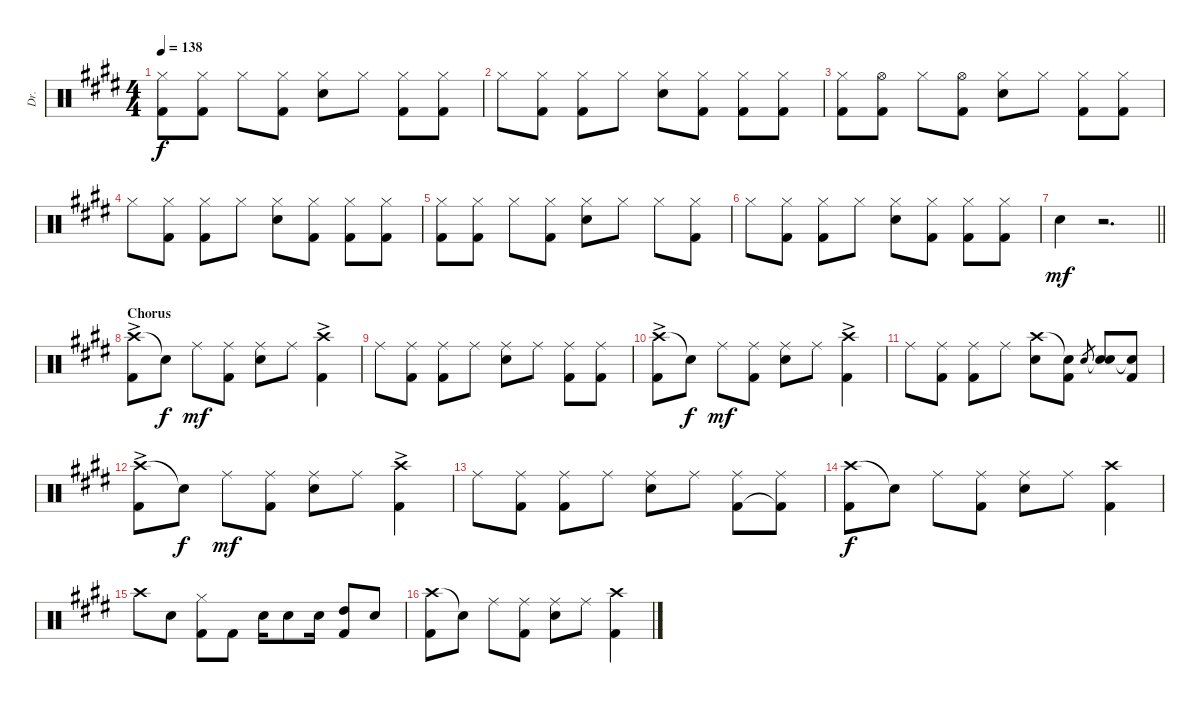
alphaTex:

\track ("Dr." "Dr.") {instrument percussion}
\staff {score}
\articulation defaults
\ts (4 4)
\tempo 138
\clef neutral
\ks e
("Hi-Hat (closed)" "Kick (hit) 2").8{dy f} ("Hi-Hat (closed)" "Kick (hit) 2").8 "Hi-Hat (closed)".8 ("Hi-Hat (closed)" "Kick (hit) 2").8 ("Hi-Hat (closed)" "Snare (hit) 2").8 "Hi-Hat (closed)".8 ("Hi-Hat (closed)" "Kick (hit) 2").8 ("Hi-Hat (closed)" "Kick (hit) 2").8 |
"Hi-Hat (closed)".8 ("Hi-Hat (closed)" "Kick (hit) 2").8 ("Hi-Hat (closed)" "Kick (hit) 2").8 "Hi-Hat (closed)".8 ("Hi-Hat (closed)" "Snare (hit) 2").8 ("Hi-Hat (closed)" "Kick (hit) 2").8 ("Hi-Hat (closed)" "Kick (hit) 2").8 ("Hi-Hat (closed)" "Kick (hit) 2").8 |
("Hi-Hat (closed)" "Kick (hit) 2").8 ("Hi-Hat (open)" "Kick (hit) 2").8 "Hi-Hat (closed)".8 ("Hi-Hat (open)" "Kick (hit) 2").8 ("Hi-Hat (closed)" "Snare (hit) 2").8 "Hi-Hat (closed)".8 ("Hi-Hat (closed)" "Kick (hit) 2").8 ("Hi-Hat (closed)" "Kick (hit) 2").8 |
"Hi-Hat (closed)".8 ("Hi-Hat (closed)" "Kick (hit) 2").8 ("Hi-Hat (closed)" "Kick (hit) 2").8 "Hi-Hat (closed)".8 ("Hi-Hat (closed)" "Snare (hit) 2").8 ("Hi-Hat (closed)" "Kick (hit) 2").8 ("Hi-Hat (closed)" "Kick (hit) 2").8 ("Hi-Hat (closed)" "Kick (hit) 2").8 |
("Hi-Hat (closed)" "Kick (hit) 2").8 ("Hi-Hat (closed)" "Kick (hit) 2").8 "Hi-Hat (closed)".8 ("Hi-Hat (closed)" "Kick (hit) 2").8 ("Hi-Hat (closed)" "Snare (hit) 2").8 "Hi-Hat (closed)".8 "Hi-Hat (closed)".8 ("Hi-Hat (closed)" "Kick (hit) 2").8 |
"Hi-Hat (closed)".8 ("Hi-Hat (closed)" "Kick (hit) 2").8 ("Hi-Hat (closed)" "Kick (hit) 2").8 "Hi-Hat (closed)".8 ("Hi-Hat (closed)" "Snare (hit) 2").8 ("Hi-Hat (closed)" "Kick (hit) 2").8 ("Hi-Hat (closed)" "Kick (hit) 2").8 ("Hi-Hat (closed)" "Kick (hit) 2").8 |
\barLineRight lightlight "Snare (hit) 2".4{dy mf}
r.2{d} |
\section ("" "Chorus")
("Crash high (hit)"{ac} "Kick (hit) 2").8 "Snare (hit)"{t}.8{dy f} "Ride (middle)".8{dy mf} ("Ride (middle)" "Kick (hit) 2").8 ("Ride (middle)" "Snare (hit) 2").8 "Ride (middle)".8 ("Crash high (hit)"{ac} "Kick (hit) 2").4 |
"Ride (middle)".8 ("Ride (middle)" "Kick (hit) 2").8 ("Ride (middle)" "Kick (hit) 2").8 "Ride (middle)".8 ("Ride (middle)" "Snare (hit) 2").8 "Ride (middle)".8 ("Ride (middle)" "Kick (hit) 2").8 ("Ride (middle)" "Kick (hit) 2").8 |
("Crash high (hit)"{ac} "Kick (hit) 2").8 "Snare (hit)"{t}.8{dy f} "Ride (middle)".8{dy mf} ("Ride (middle)" "Kick (hit) 2").8 ("Ride (middle)" "Snare (hit) 2").8 "Ride (middle)".8 ("Crash high (hit)"{ac} "Kick (hit) 2").4 |
"Ride (middle)".8 ("Ride (middle)" "Kick (hit) 2").8 ("Ride (middle)" "Kick (hit) 2").8 "Ride (middle)".8 ("Crash high (hit)" "Snare (hit) 2").8 ("Snare (hit)"{t} "Kick (hit) 2").8 "Snare (hit) 2".8{gr} ("Snare (hit)"{t} "Snare (hit) 2").8 ("Snare (hit)"{t} "Kick (hit) 2").8 |
("Crash high (hit)"{ac} "Kick (hit) 2").8 "Snare (hit)"{t}.8{dy f} "Ride (middle)".8{dy mf} ("Ride (middle)" "Kick (hit) 2").8 ("Ride (middle)" "Snare (hit) 2").8 "Ride (middle)".8 ("Crash high (hit)"{ac} "Kick (hit) 2").4 |
"Ride (middle)".8 ("Ride (middle)" "Kick (hit) 2").8 ("Ride (middle)" "Kick (hit) 2").8 "Ride (middle)".8 ("Ride (middle)" "Snare (hit) 2").8 "Ride (middle)".8 ("Ride (middle)" "Kick (hit) 2").8 ("Ride (middle)" "Kick (hit) 2"{t}).8 |
("Crash high (hit)" "Kick (hit) 2").8{dy f} "Snare (hit)"{t}.8 "Ride (middle)".8 ("Ride (middle)" "Kick (hit) 2").8 ("Ride (middle)" "Snare (hit) 2").8 "Ride (middle)".8 ("Crash high (hit)" "Kick (hit) 2").4 |
"Crash high (hit)".8 "Snare (hit) 2".8 ("Hi-Hat (closed)" "Kick (hit) 2").8 "Kick (hit) 2".8 "Snare (hit) 2".16 "Snare (hit) 2".8 "Snare (hit) 2".16 ("High Tom (hit)" "Kick (hit) 2").8 "Snare (hit) 2".8 |
("Crash high (hit)" "Kick (hit) 2").8 "Snare (hit)"{t}.8 "Ride (middle)".8 ("Ride (middle)" "Kick (hit) 2").8 ("Ride (middle)" "Snare (hit) 2").8 "Ride (middle)".8 ("Crash high (hit)" "Kick (hit) 2").4
